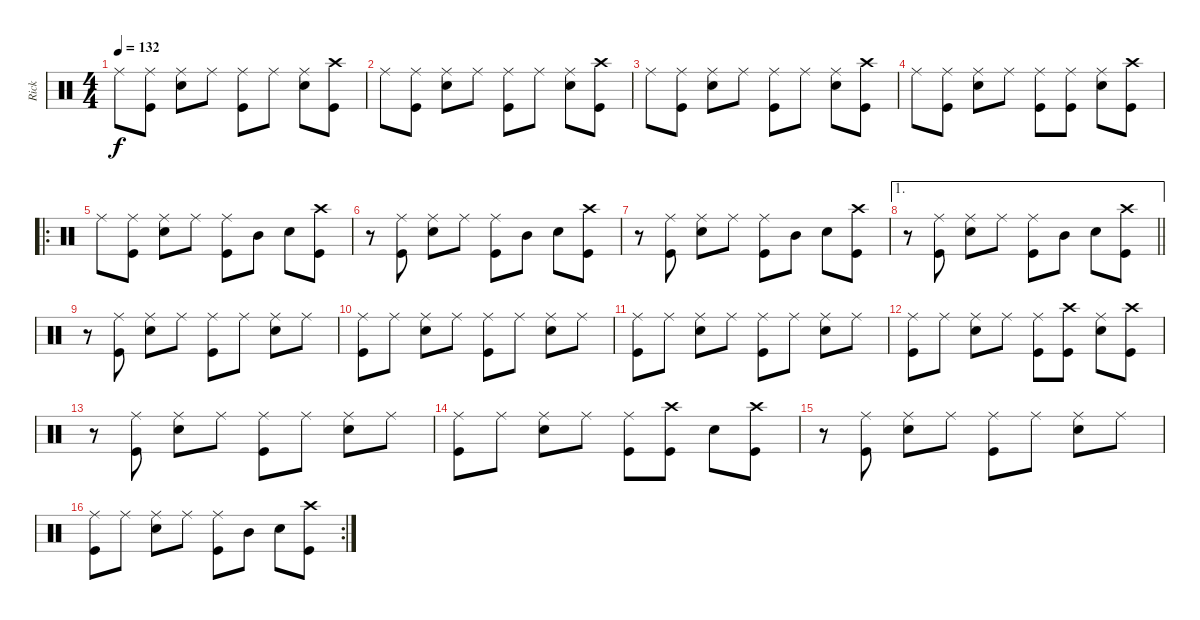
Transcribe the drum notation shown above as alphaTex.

\track ("Rick" "Rick") {instrument percussion}
\staff {score}
\articulation defaults
\ts (4 4)
\tempo 132
\clef neutral
\ks aminor "Ride (middle)".8{dy f}
("Ride (middle)" "Kick (hit)").8 ("Ride (middle)" "Snare (hit) 2").8 "Ride (middle)".8 ("Ride (middle)" "Kick (hit)").8 "Ride (middle)".8 ("Ride (middle)" "Snare (hit) 2").8 ("Crash high (hit)" "Kick (hit)").8 |
"Ride (middle)".8 ("Ride (middle)" "Kick (hit)").8 ("Ride (middle)" "Snare (hit) 2").8 "Ride (middle)".8 ("Ride (middle)" "Kick (hit)").8 "Ride (middle)".8 ("Ride (middle)" "Snare (hit) 2").8 ("Crash high (hit)" "Kick (hit)").8 |
"Ride (middle)".8 ("Ride (middle)" "Kick (hit)").8 ("Ride (middle)" "Snare (hit) 2").8 "Ride (middle)".8 ("Ride (middle)" "Kick (hit)").8 "Ride (middle)".8 ("Ride (middle)" "Snare (hit) 2").8 ("Crash high (hit)" "Kick (hit)").8 |
"Ride (middle)".8 ("Ride (middle)" "Kick (hit)").8 ("Ride (middle)" "Snare (hit) 2").8 "Ride (middle)".8 ("Ride (middle)" "Kick (hit)").8 ("Ride (middle)" "Kick (hit)").8 ("Ride (middle)" "Snare (hit) 2").8 ("Crash high (hit)" "Kick (hit)").8 |
\ro "Ride (middle)".8
("Ride (middle)" "Kick (hit)").8 ("Ride (middle)" "Snare (hit) 2").8 "Ride (middle)".8 ("Ride (middle)" "Kick (hit)").8 "Mid Tom (hit)".8 "Snare (hit) 2".8 ("Crash high (hit)" "Kick (hit)").8 |
r.8 ("Ride (middle)" "Kick (hit)").8 ("Ride (middle)" "Snare (hit) 2").8 "Ride (middle)".8 ("Ride (middle)" "Kick (hit)").8 "Mid Tom (hit)".8 "Snare (hit) 2".8 ("Crash high (hit)" "Kick (hit)").8 |
r.8 ("Ride (middle)" "Kick (hit)").8 ("Ride (middle)" "Snare (hit) 2").8 "Ride (middle)".8 ("Ride (middle)" "Kick (hit)").8 "Mid Tom (hit)".8 "Snare (hit) 2".8 ("Crash high (hit)" "Kick (hit)").8 |
\ae 1
\barLineRight lightlight
r.8 ("Ride (middle)" "Kick (hit)").8 ("Ride (middle)" "Snare (hit) 2").8 "Ride (middle)".8 ("Ride (middle)" "Kick (hit)").8 "Mid Tom (hit)".8 "Snare (hit) 2".8 ("Crash high (hit)" "Kick (hit)").8 |
r.8 ("Ride (middle)" "Kick (hit)").8 ("Ride (middle)" "Snare (hit) 2").8 "Ride (middle)".8 ("Ride (middle)" "Kick (hit)").8 "Ride (middle)".8 ("Ride (middle)" "Snare (hit) 2").8 "Ride (middle)".8 |
("Ride (middle)" "Kick (hit)").8 "Ride (middle)".8 ("Ride (middle)" "Snare (hit) 2").8 "Ride (middle)".8 ("Ride (middle)" "Kick (hit)").8 "Ride (middle)".8 ("Ride (middle)" "Snare (hit) 2").8 "Ride (middle)".8 |
("Ride (middle)" "Kick (hit)").8 "Ride (middle)".8 ("Ride (middle)" "Snare (hit) 2").8 "Ride (middle)".8 ("Ride (middle)" "Kick (hit)").8 "Ride (middle)".8 ("Ride (middle)" "Snare (hit) 2").8 "Ride (middle)".8 |
("Ride (middle)" "Kick (hit)").8 "Ride (middle)".8 ("Ride (middle)" "Snare (hit) 2").8 "Ride (middle)".8 ("Ride (middle)" "Kick (hit)").8 ("Crash high (hit)" "Kick (hit)").8 ("Ride (middle)" "Snare (hit) 2").8 ("Crash high (hit)" "Kick (hit)").8 |
r.8 ("Ride (middle)" "Kick (hit)").8 ("Ride (middle)" "Snare (hit) 2").8 "Ride (middle)".8 ("Ride (middle)" "Kick (hit)").8 "Ride (middle)".8 ("Ride (middle)" "Snare (hit) 2").8 "Ride (middle)".8 |
("Ride (middle)" "Kick (hit)").8 "Ride (middle)".8 ("Ride (middle)" "Snare (hit) 2").8 "Ride (middle)".8 ("Ride (middle)" "Kick (hit)").8 ("Crash high (hit)" "Kick (hit)").8 "Snare (hit) 2".8 ("Crash high (hit)" "Kick (hit)").8 |
r.8 ("Ride (middle)" "Kick (hit)").8 ("Ride (middle)" "Snare (hit) 2").8 "Ride (middle)".8 ("Ride (middle)" "Kick (hit)").8 "Ride (middle)".8 ("Ride (middle)" "Snare (hit) 2").8 "Ride (middle)".8 |
\rc 2
("Ride (middle)" "Kick (hit)").8 "Ride (middle)".8 ("Ride (middle)" "Snare (hit) 2").8 "Ride (middle)".8 ("Ride (middle)" "Kick (hit)").8 "Mid Tom (hit)".8 "Snare (hit) 2".8 ("Crash high (hit)" "Kick (hit)").8
